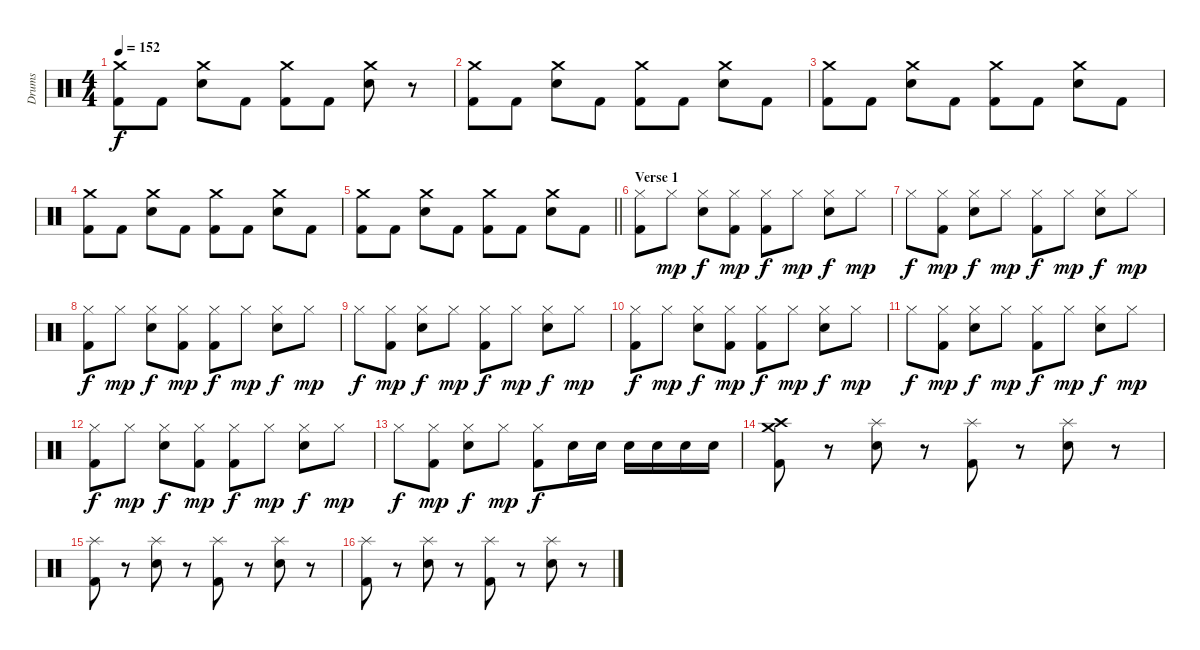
\track ("Drums" "Drums") {instrument percussion}
\staff {score}
\articulation defaults
\ts (4 4)
\tempo 152
\clef neutral
\ks c
("Crash medium (hit)" "Kick (hit) 2").8{dy f} "Kick (hit) 2".8 ("Crash medium (hit)" "Electric Snare (hit)").8 "Kick (hit) 2".8 ("Crash medium (hit)" "Kick (hit) 2").8 "Kick (hit) 2".8 ("Crash medium (hit)" "Electric Snare (hit)").8 r.8 |
("Crash medium (hit)" "Kick (hit) 2").8 "Kick (hit) 2".8 ("Crash medium (hit)" "Electric Snare (hit)").8 "Kick (hit) 2".8 ("Crash medium (hit)" "Kick (hit) 2").8 "Kick (hit) 2".8 ("Crash medium (hit)" "Electric Snare (hit)").8 "Kick (hit) 2".8 |
("Crash medium (hit)" "Kick (hit) 2").8 "Kick (hit) 2".8 ("Crash medium (hit)" "Electric Snare (hit)").8 "Kick (hit) 2".8 ("Crash medium (hit)" "Kick (hit) 2").8 "Kick (hit) 2".8 ("Crash medium (hit)" "Electric Snare (hit)").8 "Kick (hit) 2".8 |
("Crash medium (hit)" "Kick (hit) 2").8 "Kick (hit) 2".8 ("Crash medium (hit)" "Electric Snare (hit)").8 "Kick (hit) 2".8 ("Crash medium (hit)" "Kick (hit) 2").8 "Kick (hit) 2".8 ("Crash medium (hit)" "Electric Snare (hit)").8 "Kick (hit) 2".8 |
\barLineRight lightlight
("Crash medium (hit)" "Kick (hit) 2").8 "Kick (hit) 2".8 ("Crash medium (hit)" "Electric Snare (hit)").8 "Kick (hit) 2".8 ("Crash medium (hit)" "Kick (hit) 2").8 "Kick (hit) 2".8 ("Crash medium (hit)" "Electric Snare (hit)").8 "Kick (hit) 2".8 |
\section ("" "Verse 1")
("Hi-Hat (closed)" "Kick (hit) 2").8 "Hi-Hat (closed)".8{dy mp} ("Hi-Hat (closed)" "Electric Snare (hit)").8{dy f} ("Hi-Hat (closed)" "Kick (hit) 2").8{dy mp} ("Hi-Hat (closed)" "Kick (hit) 2").8{dy f} "Hi-Hat (closed)".8{dy mp} ("Hi-Hat (closed)" "Electric Snare (hit)").8{dy f} "Hi-Hat (closed)".8{dy mp} |
"Hi-Hat (closed)".8{dy f} ("Hi-Hat (closed)" "Kick (hit) 2").8{dy mp} ("Hi-Hat (closed)" "Electric Snare (hit)").8{dy f} "Hi-Hat (closed)".8{dy mp} ("Hi-Hat (closed)" "Kick (hit) 2").8{dy f} "Hi-Hat (closed)".8{dy mp} ("Hi-Hat (closed)" "Electric Snare (hit)").8{dy f} "Hi-Hat (closed)".8{dy mp} |
("Hi-Hat (closed)" "Kick (hit) 2").8{dy f} "Hi-Hat (closed)".8{dy mp} ("Hi-Hat (closed)" "Electric Snare (hit)").8{dy f} ("Hi-Hat (closed)" "Kick (hit) 2").8{dy mp} ("Hi-Hat (closed)" "Kick (hit) 2").8{dy f} "Hi-Hat (closed)".8{dy mp} ("Hi-Hat (closed)" "Electric Snare (hit)").8{dy f} "Hi-Hat (closed)".8{dy mp} |
"Hi-Hat (closed)".8{dy f} ("Hi-Hat (closed)" "Kick (hit) 2").8{dy mp} ("Hi-Hat (closed)" "Electric Snare (hit)").8{dy f} "Hi-Hat (closed)".8{dy mp} ("Hi-Hat (closed)" "Kick (hit) 2").8{dy f} "Hi-Hat (closed)".8{dy mp} ("Hi-Hat (closed)" "Electric Snare (hit)").8{dy f} "Hi-Hat (closed)".8{dy mp} |
("Hi-Hat (closed)" "Kick (hit) 2").8{dy f} "Hi-Hat (closed)".8{dy mp} ("Hi-Hat (closed)" "Electric Snare (hit)").8{dy f} ("Hi-Hat (closed)" "Kick (hit) 2").8{dy mp} ("Hi-Hat (closed)" "Kick (hit) 2").8{dy f} "Hi-Hat (closed)".8{dy mp} ("Hi-Hat (closed)" "Electric Snare (hit)").8{dy f} "Hi-Hat (closed)".8{dy mp} |
"Hi-Hat (closed)".8{dy f} ("Hi-Hat (closed)" "Kick (hit) 2").8{dy mp} ("Hi-Hat (closed)" "Electric Snare (hit)").8{dy f} "Hi-Hat (closed)".8{dy mp} ("Hi-Hat (closed)" "Kick (hit) 2").8{dy f} "Hi-Hat (closed)".8{dy mp} ("Hi-Hat (closed)" "Electric Snare (hit)").8{dy f} "Hi-Hat (closed)".8{dy mp} |
("Hi-Hat (closed)" "Kick (hit) 2").8{dy f} "Hi-Hat (closed)".8{dy mp} ("Hi-Hat (closed)" "Electric Snare (hit)").8{dy f} ("Hi-Hat (closed)" "Kick (hit) 2").8{dy mp} ("Hi-Hat (closed)" "Kick (hit) 2").8{dy f} "Hi-Hat (closed)".8{dy mp} ("Hi-Hat (closed)" "Electric Snare (hit)").8{dy f} "Hi-Hat (closed)".8{dy mp} |
"Hi-Hat (closed)".8{dy f} ("Hi-Hat (closed)" "Kick (hit) 2").8{dy mp} ("Hi-Hat (closed)" "Electric Snare (hit)").8{dy f} "Hi-Hat (closed)".8{dy mp} ("Hi-Hat (closed)" "Kick (hit) 2").8{dy f} "Electric Snare (hit)".16 "Electric Snare (hit)".16 "Electric Snare (hit)".16 "Electric Snare (hit)".16 "Electric Snare (hit)".16 "Electric Snare (hit)".16 |
("Crash medium (hit)" "Crash high (hit)" "Kick (hit) 2").8 r.8 ("Splash (hit)" "Electric Snare (hit)").8 r.8 ("Splash (hit)" "Kick (hit) 2").8 r.8 ("Splash (hit)" "Electric Snare (hit)").8 r.8 |
("Splash (hit)" "Kick (hit) 2").8 r.8 ("Splash (hit)" "Electric Snare (hit)").8 r.8 ("Splash (hit)" "Kick (hit) 2").8 r.8 ("Splash (hit)" "Electric Snare (hit)").8 r.8 |
("Splash (hit)" "Kick (hit) 2").8 r.8 ("Splash (hit)" "Electric Snare (hit)").8 r.8 ("Splash (hit)" "Kick (hit) 2").8 r.8 ("Splash (hit)" "Electric Snare (hit)").8 r.8
